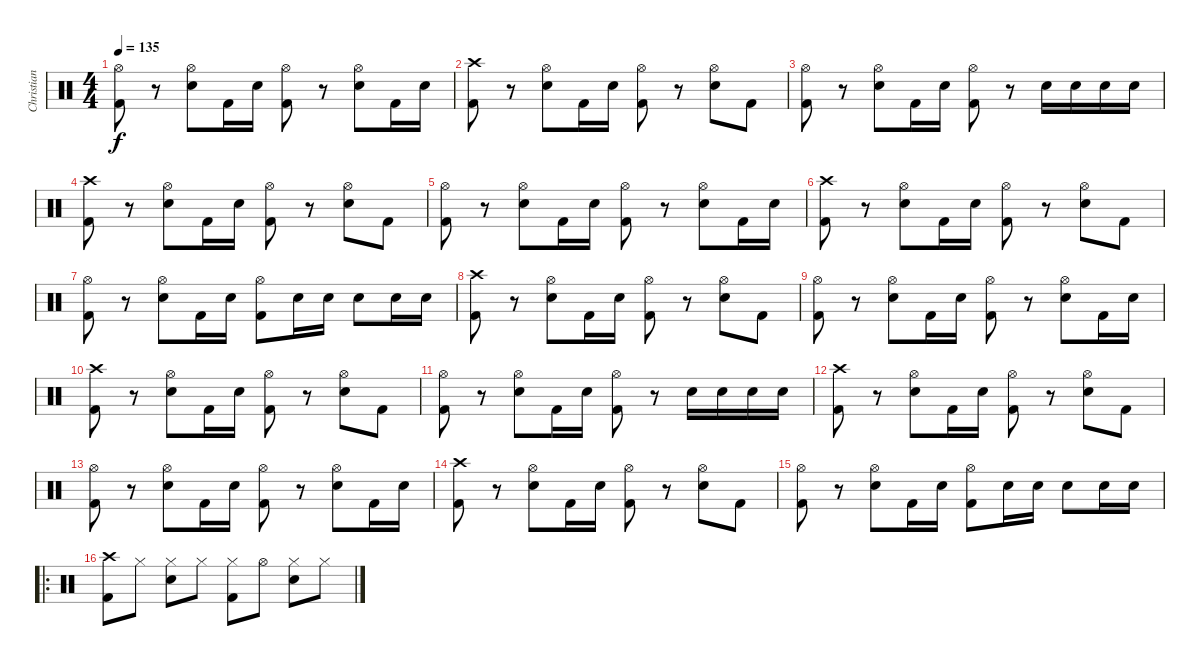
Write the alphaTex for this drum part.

\track ("Christian" "Christian") {instrument percussion}
\staff {score}
\articulation defaults
\ts (4 4)
\tempo 135
\clef neutral
\ks c
("Hi-Hat (open)" "Kick (hit) 2").8{dy f} r.8 ("Hi-Hat (open)" "Snare (hit) 2").8 "Kick (hit) 2".16 "Snare (hit) 2".16 ("Hi-Hat (open)" "Kick (hit) 2").8 r.8 ("Hi-Hat (open)" "Snare (hit) 2").8 "Kick (hit) 2".16 "Snare (hit) 2".16 |
("Crash high (hit)" "Kick (hit) 2").8 r.8 ("Hi-Hat (open)" "Snare (hit) 2").8 "Kick (hit) 2".16 "Snare (hit) 2".16 ("Hi-Hat (open)" "Kick (hit) 2").8 r.8 ("Hi-Hat (open)" "Snare (hit) 2").8 "Kick (hit) 2".8 |
("Hi-Hat (open)" "Kick (hit) 2").8 r.8 ("Hi-Hat (open)" "Snare (hit) 2").8 "Kick (hit) 2".16 "Snare (hit) 2".16 ("Hi-Hat (open)" "Kick (hit) 2").8 r.8 "Snare (hit) 2".16 "Snare (hit) 2".16 "Snare (hit) 2".16 "Snare (hit) 2".16 |
("Crash high (hit)" "Kick (hit) 2").8 r.8 ("Hi-Hat (open)" "Snare (hit) 2").8 "Kick (hit) 2".16 "Snare (hit) 2".16 ("Hi-Hat (open)" "Kick (hit) 2").8 r.8 ("Hi-Hat (open)" "Snare (hit) 2").8 "Kick (hit) 2".8 |
("Hi-Hat (open)" "Kick (hit) 2").8 r.8 ("Hi-Hat (open)" "Snare (hit) 2").8 "Kick (hit) 2".16 "Snare (hit) 2".16 ("Hi-Hat (open)" "Kick (hit) 2").8 r.8 ("Hi-Hat (open)" "Snare (hit) 2").8 "Kick (hit) 2".16 "Snare (hit) 2".16 |
("Crash high (hit)" "Kick (hit) 2").8 r.8 ("Hi-Hat (open)" "Snare (hit) 2").8 "Kick (hit) 2".16 "Snare (hit) 2".16 ("Hi-Hat (open)" "Kick (hit) 2").8 r.8 ("Hi-Hat (open)" "Snare (hit) 2").8 "Kick (hit) 2".8 |
("Hi-Hat (open)" "Kick (hit) 2").8 r.8 ("Hi-Hat (open)" "Snare (hit) 2").8 "Kick (hit) 2".16 "Snare (hit) 2".16 ("Hi-Hat (open)" "Kick (hit) 2").8 "Snare (hit) 2".16 "Snare (hit) 2".16 "Snare (hit) 2".8 "Snare (hit) 2".16 "Snare (hit) 2".16 |
("Crash high (hit)" "Kick (hit) 2").8 r.8 ("Hi-Hat (open)" "Snare (hit) 2").8 "Kick (hit) 2".16 "Snare (hit) 2".16 ("Hi-Hat (open)" "Kick (hit) 2").8 r.8 ("Hi-Hat (open)" "Snare (hit) 2").8 "Kick (hit) 2".8 |
("Hi-Hat (open)" "Kick (hit) 2").8 r.8 ("Hi-Hat (open)" "Snare (hit) 2").8 "Kick (hit) 2".16 "Snare (hit) 2".16 ("Hi-Hat (open)" "Kick (hit) 2").8 r.8 ("Hi-Hat (open)" "Snare (hit) 2").8 "Kick (hit) 2".16 "Snare (hit) 2".16 |
("Crash high (hit)" "Kick (hit) 2").8 r.8 ("Hi-Hat (open)" "Snare (hit) 2").8 "Kick (hit) 2".16 "Snare (hit) 2".16 ("Hi-Hat (open)" "Kick (hit) 2").8 r.8 ("Hi-Hat (open)" "Snare (hit) 2").8 "Kick (hit) 2".8 |
("Hi-Hat (open)" "Kick (hit) 2").8 r.8 ("Hi-Hat (open)" "Snare (hit) 2").8 "Kick (hit) 2".16 "Snare (hit) 2".16 ("Hi-Hat (open)" "Kick (hit) 2").8 r.8 "Snare (hit) 2".16 "Snare (hit) 2".16 "Snare (hit) 2".16 "Snare (hit) 2".16 |
("Crash high (hit)" "Kick (hit) 2").8 r.8 ("Hi-Hat (open)" "Snare (hit) 2").8 "Kick (hit) 2".16 "Snare (hit) 2".16 ("Hi-Hat (open)" "Kick (hit) 2").8 r.8 ("Hi-Hat (open)" "Snare (hit) 2").8 "Kick (hit) 2".8 |
("Hi-Hat (open)" "Kick (hit) 2").8 r.8 ("Hi-Hat (open)" "Snare (hit) 2").8 "Kick (hit) 2".16 "Snare (hit) 2".16 ("Hi-Hat (open)" "Kick (hit) 2").8 r.8 ("Hi-Hat (open)" "Snare (hit) 2").8 "Kick (hit) 2".16 "Snare (hit) 2".16 |
("Crash high (hit)" "Kick (hit) 2").8 r.8 ("Hi-Hat (open)" "Snare (hit) 2").8 "Kick (hit) 2".16 "Snare (hit) 2".16 ("Hi-Hat (open)" "Kick (hit) 2").8 r.8 ("Hi-Hat (open)" "Snare (hit) 2").8 "Kick (hit) 2".8 |
("Hi-Hat (open)" "Kick (hit) 2").8 r.8 ("Hi-Hat (open)" "Snare (hit) 2").8 "Kick (hit) 2".16 "Snare (hit) 2".16 ("Hi-Hat (open)" "Kick (hit) 2").8 "Snare (hit) 2".16 "Snare (hit) 2".16 "Snare (hit) 2".8 "Snare (hit) 2".16 "Snare (hit) 2".16 |
\ro
("Crash high (hit)" "Kick (hit) 2").8 "Hi-Hat (closed)".8 ("Hi-Hat (closed)" "Snare (hit) 2").8 "Hi-Hat (closed)".8 ("Hi-Hat (closed)" "Kick (hit) 2").8 "Hi-Hat (open)".8 ("Hi-Hat (closed)" "Snare (hit) 2").8 "Hi-Hat (closed)".8
